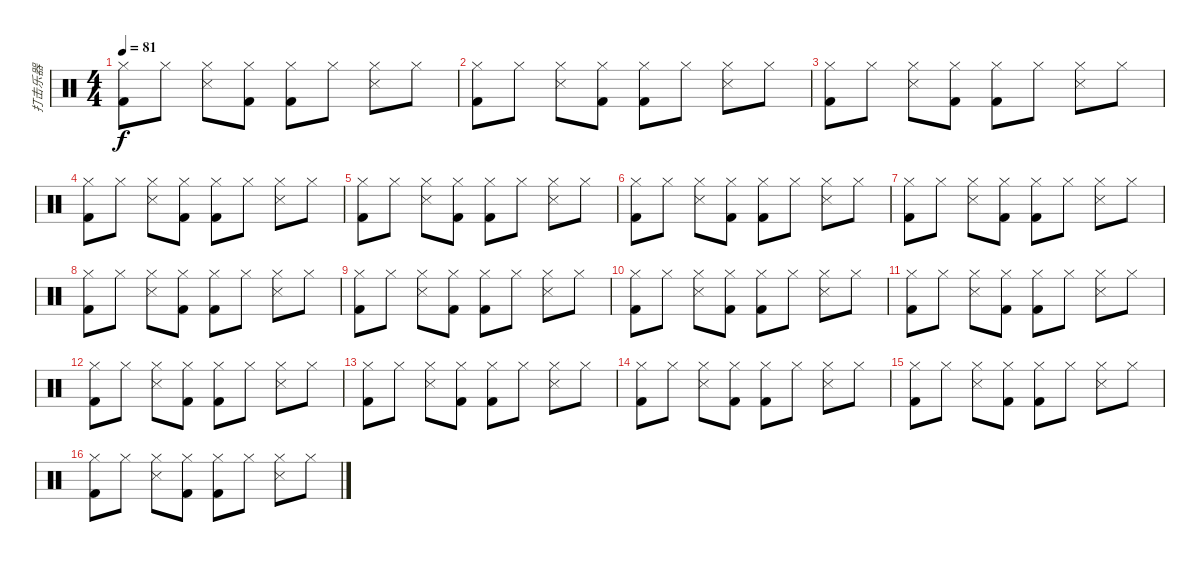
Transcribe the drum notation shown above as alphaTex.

\track ("打击乐器" "打击乐器") {instrument percussion}
\staff {score}
\articulation defaults
\ts (4 4)
\tempo 81
\clef neutral
\ks c
("Kick (hit) 2" "Hi-Hat (closed)").8{dy f} "Hi-Hat (closed)".8 ("Snare (side stick) 3" "Hi-Hat (closed)").8 ("Kick (hit) 2" "Hi-Hat (closed)").8 ("Kick (hit) 2" "Hi-Hat (closed)").8 "Hi-Hat (closed)".8 ("Snare (side stick) 3" "Hi-Hat (closed)").8 "Hi-Hat (closed)".8 |
("Kick (hit) 2" "Hi-Hat (closed)").8 "Hi-Hat (closed)".8 ("Snare (side stick) 3" "Hi-Hat (closed)").8 ("Kick (hit) 2" "Hi-Hat (closed)").8 ("Kick (hit) 2" "Hi-Hat (closed)").8 "Hi-Hat (closed)".8 ("Snare (side stick) 3" "Hi-Hat (closed)").8 "Hi-Hat (closed)".8 |
("Kick (hit) 2" "Hi-Hat (closed)").8 "Hi-Hat (closed)".8 ("Snare (side stick) 3" "Hi-Hat (closed)").8 ("Kick (hit) 2" "Hi-Hat (closed)").8 ("Kick (hit) 2" "Hi-Hat (closed)").8 "Hi-Hat (closed)".8 ("Snare (side stick) 3" "Hi-Hat (closed)").8 "Hi-Hat (closed)".8 |
("Kick (hit) 2" "Hi-Hat (closed)").8 "Hi-Hat (closed)".8 ("Snare (side stick) 3" "Hi-Hat (closed)").8 ("Kick (hit) 2" "Hi-Hat (closed)").8 ("Kick (hit) 2" "Hi-Hat (closed)").8 "Hi-Hat (closed)".8 ("Snare (side stick) 3" "Hi-Hat (closed)").8 "Hi-Hat (closed)".8 |
("Kick (hit) 2" "Hi-Hat (closed)").8 "Hi-Hat (closed)".8 ("Snare (side stick) 3" "Hi-Hat (closed)").8 ("Kick (hit) 2" "Hi-Hat (closed)").8 ("Kick (hit) 2" "Hi-Hat (closed)").8 "Hi-Hat (closed)".8 ("Snare (side stick) 3" "Hi-Hat (closed)").8 "Hi-Hat (closed)".8 |
("Kick (hit) 2" "Hi-Hat (closed)").8 "Hi-Hat (closed)".8 ("Snare (side stick) 3" "Hi-Hat (closed)").8 ("Kick (hit) 2" "Hi-Hat (closed)").8 ("Kick (hit) 2" "Hi-Hat (closed)").8 "Hi-Hat (closed)".8 ("Snare (side stick) 3" "Hi-Hat (closed)").8 "Hi-Hat (closed)".8 |
("Kick (hit) 2" "Hi-Hat (closed)").8 "Hi-Hat (closed)".8 ("Snare (side stick) 3" "Hi-Hat (closed)").8 ("Kick (hit) 2" "Hi-Hat (closed)").8 ("Kick (hit) 2" "Hi-Hat (closed)").8 "Hi-Hat (closed)".8 ("Snare (side stick) 3" "Hi-Hat (closed)").8 "Hi-Hat (closed)".8 |
("Kick (hit) 2" "Hi-Hat (closed)").8 "Hi-Hat (closed)".8 ("Snare (side stick) 3" "Hi-Hat (closed)").8 ("Kick (hit) 2" "Hi-Hat (closed)").8 ("Kick (hit) 2" "Hi-Hat (closed)").8 "Hi-Hat (closed)".8 ("Snare (side stick) 3" "Hi-Hat (closed)").8 "Hi-Hat (closed)".8 |
("Kick (hit) 2" "Hi-Hat (closed)").8 "Hi-Hat (closed)".8 ("Snare (side stick) 3" "Hi-Hat (closed)").8 ("Kick (hit) 2" "Hi-Hat (closed)").8 ("Kick (hit) 2" "Hi-Hat (closed)").8 "Hi-Hat (closed)".8 ("Snare (side stick) 3" "Hi-Hat (closed)").8 "Hi-Hat (closed)".8 |
("Kick (hit) 2" "Hi-Hat (closed)").8 "Hi-Hat (closed)".8 ("Snare (side stick) 3" "Hi-Hat (closed)").8 ("Kick (hit) 2" "Hi-Hat (closed)").8 ("Kick (hit) 2" "Hi-Hat (closed)").8 "Hi-Hat (closed)".8 ("Snare (side stick) 3" "Hi-Hat (closed)").8 "Hi-Hat (closed)".8 |
("Kick (hit) 2" "Hi-Hat (closed)").8 "Hi-Hat (closed)".8 ("Snare (side stick) 3" "Hi-Hat (closed)").8 ("Kick (hit) 2" "Hi-Hat (closed)").8 ("Kick (hit) 2" "Hi-Hat (closed)").8 "Hi-Hat (closed)".8 ("Snare (side stick) 3" "Hi-Hat (closed)").8 "Hi-Hat (closed)".8 |
("Kick (hit) 2" "Hi-Hat (closed)").8 "Hi-Hat (closed)".8 ("Snare (side stick) 3" "Hi-Hat (closed)").8 ("Kick (hit) 2" "Hi-Hat (closed)").8 ("Kick (hit) 2" "Hi-Hat (closed)").8 "Hi-Hat (closed)".8 ("Snare (side stick) 3" "Hi-Hat (closed)").8 "Hi-Hat (closed)".8 |
("Kick (hit) 2" "Hi-Hat (closed)").8 "Hi-Hat (closed)".8 ("Snare (side stick) 3" "Hi-Hat (closed)").8 ("Kick (hit) 2" "Hi-Hat (closed)").8 ("Kick (hit) 2" "Hi-Hat (closed)").8 "Hi-Hat (closed)".8 ("Snare (side stick) 3" "Hi-Hat (closed)").8 "Hi-Hat (closed)".8 |
("Kick (hit) 2" "Hi-Hat (closed)").8 "Hi-Hat (closed)".8 ("Snare (side stick) 3" "Hi-Hat (closed)").8 ("Kick (hit) 2" "Hi-Hat (closed)").8 ("Kick (hit) 2" "Hi-Hat (closed)").8 "Hi-Hat (closed)".8 ("Snare (side stick) 3" "Hi-Hat (closed)").8 "Hi-Hat (closed)".8 |
("Kick (hit) 2" "Hi-Hat (closed)").8 "Hi-Hat (closed)".8 ("Snare (side stick) 3" "Hi-Hat (closed)").8 ("Kick (hit) 2" "Hi-Hat (closed)").8 ("Kick (hit) 2" "Hi-Hat (closed)").8 "Hi-Hat (closed)".8 ("Snare (side stick) 3" "Hi-Hat (closed)").8 "Hi-Hat (closed)".8 |
("Kick (hit) 2" "Hi-Hat (closed)").8 "Hi-Hat (closed)".8 ("Snare (side stick) 3" "Hi-Hat (closed)").8 ("Kick (hit) 2" "Hi-Hat (closed)").8 ("Kick (hit) 2" "Hi-Hat (closed)").8 "Hi-Hat (closed)".8 ("Snare (side stick) 3" "Hi-Hat (closed)").8 "Hi-Hat (closed)".8
